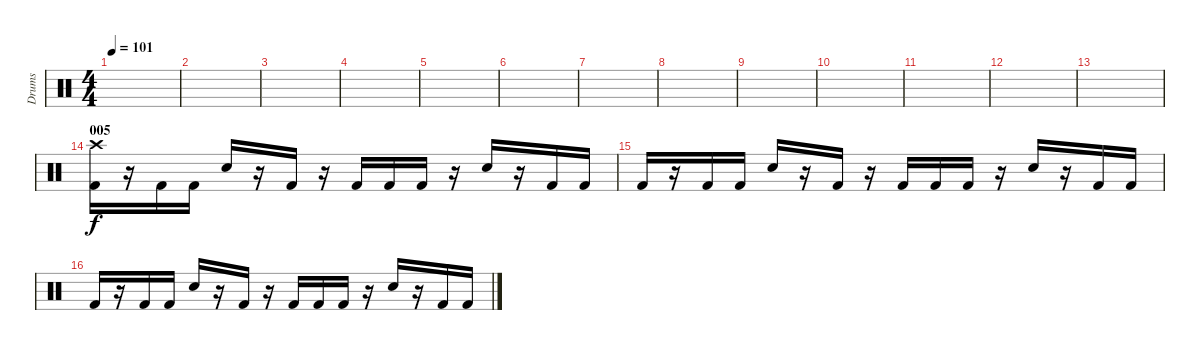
\track ("Drums" "Drums") {instrument percussion}
\staff {score}
\articulation defaults
\ts (4 4)
\tempo 101
\clef neutral
\ks c
|
|
|
|
|
|
|
|
|
|
|
|
|
\section ("" "005")
("Kick (hit) 2" "Crash high (hit)").16 r.16 "Kick (hit) 2".16 "Kick (hit) 2".16 "Electric Snare (hit)".16 r.16 "Kick (hit) 2".16 r.16 "Kick (hit) 2".16 "Kick (hit) 2".16 "Kick (hit) 2".16 r.16 "Electric Snare (hit)".16 r.16 "Kick (hit) 2".16 "Kick (hit) 2".16 |
"Kick (hit) 2".16 r.16 "Kick (hit) 2".16 "Kick (hit) 2".16 "Electric Snare (hit)".16 r.16 "Kick (hit) 2".16 r.16 "Kick (hit) 2".16 "Kick (hit) 2".16 "Kick (hit) 2".16 r.16 "Electric Snare (hit)".16 r.16 "Kick (hit) 2".16 "Kick (hit) 2".16 |
"Kick (hit) 2".16 r.16 "Kick (hit) 2".16 "Kick (hit) 2".16 "Electric Snare (hit)".16 r.16 "Kick (hit) 2".16 r.16 "Kick (hit) 2".16 "Kick (hit) 2".16 "Kick (hit) 2".16 r.16 "Electric Snare (hit)".16 r.16 "Kick (hit) 2".16 "Kick (hit) 2".16
